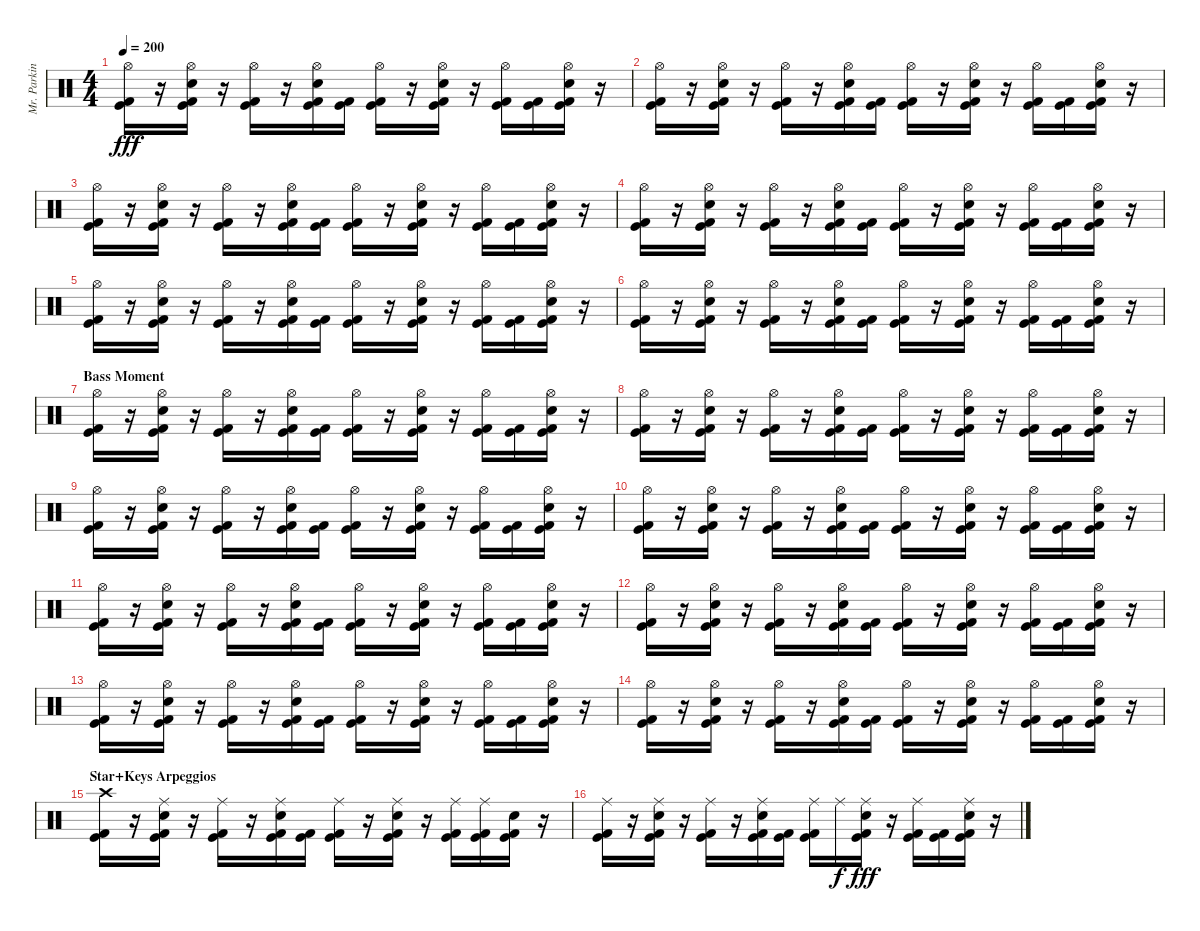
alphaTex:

\track ("Mr. Parkinson" "Mr. Parkin") {instrument percussion}
\staff {score}
\articulation defaults
\ts (4 4)
\tempo 200
\clef neutral
\ks c
("Hi-Hat (open)" "Kick (hit)" "Kick (hit) 2").16{dy fff} r.16 ("Hi-Hat (open)" "Electric Snare (hit)" "Kick (hit)" "Kick (hit) 2").16 r.16 ("Hi-Hat (open)" "Kick (hit)" "Kick (hit) 2").16 r.16 ("Hi-Hat (open)" "Electric Snare (hit)" "Kick (hit)" "Kick (hit) 2").16 ("Kick (hit)" "Kick (hit) 2").16 ("Hi-Hat (open)" "Kick (hit)" "Kick (hit) 2").16 r.16 ("Hi-Hat (open)" "Electric Snare (hit)" "Kick (hit)" "Kick (hit) 2").16 r.16 ("Hi-Hat (open)" "Kick (hit)" "Kick (hit) 2").16 ("Kick (hit)" "Kick (hit) 2").16 ("Hi-Hat (open)" "Electric Snare (hit)" "Kick (hit)" "Kick (hit) 2").16 r.16 |
("Hi-Hat (open)" "Kick (hit)" "Kick (hit) 2").16 r.16 ("Hi-Hat (open)" "Electric Snare (hit)" "Kick (hit)" "Kick (hit) 2").16 r.16 ("Hi-Hat (open)" "Kick (hit)" "Kick (hit) 2").16 r.16 ("Hi-Hat (open)" "Electric Snare (hit)" "Kick (hit)" "Kick (hit) 2").16 ("Kick (hit)" "Kick (hit) 2").16 ("Hi-Hat (open)" "Kick (hit)" "Kick (hit) 2").16 r.16 ("Hi-Hat (open)" "Electric Snare (hit)" "Kick (hit)" "Kick (hit) 2").16 r.16 ("Hi-Hat (open)" "Kick (hit)" "Kick (hit) 2").16 ("Kick (hit)" "Kick (hit) 2").16 ("Hi-Hat (open)" "Electric Snare (hit)" "Kick (hit)" "Kick (hit) 2").16 r.16 |
("Hi-Hat (open)" "Kick (hit)" "Kick (hit) 2").16 r.16 ("Hi-Hat (open)" "Electric Snare (hit)" "Kick (hit)" "Kick (hit) 2").16 r.16 ("Hi-Hat (open)" "Kick (hit)" "Kick (hit) 2").16 r.16 ("Hi-Hat (open)" "Electric Snare (hit)" "Kick (hit)" "Kick (hit) 2").16 ("Kick (hit)" "Kick (hit) 2").16 ("Hi-Hat (open)" "Kick (hit)" "Kick (hit) 2").16 r.16 ("Hi-Hat (open)" "Electric Snare (hit)" "Kick (hit)" "Kick (hit) 2").16 r.16 ("Hi-Hat (open)" "Kick (hit)" "Kick (hit) 2").16 ("Kick (hit)" "Kick (hit) 2").16 ("Hi-Hat (open)" "Electric Snare (hit)" "Kick (hit)" "Kick (hit) 2").16 r.16 |
("Hi-Hat (open)" "Kick (hit)" "Kick (hit) 2").16 r.16 ("Hi-Hat (open)" "Electric Snare (hit)" "Kick (hit)" "Kick (hit) 2").16 r.16 ("Hi-Hat (open)" "Kick (hit)" "Kick (hit) 2").16 r.16 ("Hi-Hat (open)" "Electric Snare (hit)" "Kick (hit)" "Kick (hit) 2").16 ("Kick (hit)" "Kick (hit) 2").16 ("Hi-Hat (open)" "Kick (hit)" "Kick (hit) 2").16 r.16 ("Hi-Hat (open)" "Electric Snare (hit)" "Kick (hit)" "Kick (hit) 2").16 r.16 ("Hi-Hat (open)" "Kick (hit)" "Kick (hit) 2").16 ("Kick (hit)" "Kick (hit) 2").16 ("Hi-Hat (open)" "Electric Snare (hit)" "Kick (hit)" "Kick (hit) 2").16 r.16 |
("Hi-Hat (open)" "Kick (hit)" "Kick (hit) 2").16 r.16 ("Hi-Hat (open)" "Electric Snare (hit)" "Kick (hit)" "Kick (hit) 2").16 r.16 ("Hi-Hat (open)" "Kick (hit)" "Kick (hit) 2").16 r.16 ("Hi-Hat (open)" "Electric Snare (hit)" "Kick (hit)" "Kick (hit) 2").16 ("Kick (hit)" "Kick (hit) 2").16 ("Hi-Hat (open)" "Kick (hit)" "Kick (hit) 2").16 r.16 ("Hi-Hat (open)" "Electric Snare (hit)" "Kick (hit)" "Kick (hit) 2").16 r.16 ("Hi-Hat (open)" "Kick (hit)" "Kick (hit) 2").16 ("Kick (hit)" "Kick (hit) 2").16 ("Hi-Hat (open)" "Electric Snare (hit)" "Kick (hit)" "Kick (hit) 2").16 r.16 |
("Hi-Hat (open)" "Kick (hit)" "Kick (hit) 2").16 r.16 ("Hi-Hat (open)" "Electric Snare (hit)" "Kick (hit)" "Kick (hit) 2").16 r.16 ("Hi-Hat (open)" "Kick (hit)" "Kick (hit) 2").16 r.16 ("Hi-Hat (open)" "Electric Snare (hit)" "Kick (hit)" "Kick (hit) 2").16 ("Kick (hit)" "Kick (hit) 2").16 ("Hi-Hat (open)" "Kick (hit)" "Kick (hit) 2").16 r.16 ("Hi-Hat (open)" "Electric Snare (hit)" "Kick (hit)" "Kick (hit) 2").16 r.16 ("Hi-Hat (open)" "Kick (hit)" "Kick (hit) 2").16 ("Kick (hit)" "Kick (hit) 2").16 ("Hi-Hat (open)" "Electric Snare (hit)" "Kick (hit)" "Kick (hit) 2").16 r.16 |
\section ("" "Bass Moment")
("Hi-Hat (open)" "Kick (hit)" "Kick (hit) 2").16 r.16 ("Hi-Hat (open)" "Electric Snare (hit)" "Kick (hit)" "Kick (hit) 2").16 r.16 ("Hi-Hat (open)" "Kick (hit)" "Kick (hit) 2").16 r.16 ("Hi-Hat (open)" "Electric Snare (hit)" "Kick (hit)" "Kick (hit) 2").16 ("Kick (hit)" "Kick (hit) 2").16 ("Hi-Hat (open)" "Kick (hit)" "Kick (hit) 2").16 r.16 ("Hi-Hat (open)" "Electric Snare (hit)" "Kick (hit)" "Kick (hit) 2").16 r.16 ("Hi-Hat (open)" "Kick (hit)" "Kick (hit) 2").16 ("Kick (hit)" "Kick (hit) 2").16 ("Hi-Hat (open)" "Electric Snare (hit)" "Kick (hit)" "Kick (hit) 2").16 r.16 |
("Hi-Hat (open)" "Kick (hit)" "Kick (hit) 2").16 r.16 ("Hi-Hat (open)" "Electric Snare (hit)" "Kick (hit)" "Kick (hit) 2").16 r.16 ("Hi-Hat (open)" "Kick (hit)" "Kick (hit) 2").16 r.16 ("Hi-Hat (open)" "Electric Snare (hit)" "Kick (hit)" "Kick (hit) 2").16 ("Kick (hit)" "Kick (hit) 2").16 ("Hi-Hat (open)" "Kick (hit)" "Kick (hit) 2").16 r.16 ("Hi-Hat (open)" "Electric Snare (hit)" "Kick (hit)" "Kick (hit) 2").16 r.16 ("Hi-Hat (open)" "Kick (hit)" "Kick (hit) 2").16 ("Kick (hit)" "Kick (hit) 2").16 ("Hi-Hat (open)" "Electric Snare (hit)" "Kick (hit)" "Kick (hit) 2").16 r.16 |
("Hi-Hat (open)" "Kick (hit)" "Kick (hit) 2").16 r.16 ("Hi-Hat (open)" "Electric Snare (hit)" "Kick (hit)" "Kick (hit) 2").16 r.16 ("Hi-Hat (open)" "Kick (hit)" "Kick (hit) 2").16 r.16 ("Hi-Hat (open)" "Electric Snare (hit)" "Kick (hit)" "Kick (hit) 2").16 ("Kick (hit)" "Kick (hit) 2").16 ("Hi-Hat (open)" "Kick (hit)" "Kick (hit) 2").16 r.16 ("Hi-Hat (open)" "Electric Snare (hit)" "Kick (hit)" "Kick (hit) 2").16 r.16 ("Hi-Hat (open)" "Kick (hit)" "Kick (hit) 2").16 ("Kick (hit)" "Kick (hit) 2").16 ("Hi-Hat (open)" "Electric Snare (hit)" "Kick (hit)" "Kick (hit) 2").16 r.16 |
("Hi-Hat (open)" "Kick (hit)" "Kick (hit) 2").16 r.16 ("Hi-Hat (open)" "Electric Snare (hit)" "Kick (hit)" "Kick (hit) 2").16 r.16 ("Hi-Hat (open)" "Kick (hit)" "Kick (hit) 2").16 r.16 ("Hi-Hat (open)" "Electric Snare (hit)" "Kick (hit)" "Kick (hit) 2").16 ("Kick (hit)" "Kick (hit) 2").16 ("Hi-Hat (open)" "Kick (hit)" "Kick (hit) 2").16 r.16 ("Hi-Hat (open)" "Electric Snare (hit)" "Kick (hit)" "Kick (hit) 2").16 r.16 ("Hi-Hat (open)" "Kick (hit)" "Kick (hit) 2").16 ("Kick (hit)" "Kick (hit) 2").16 ("Hi-Hat (open)" "Electric Snare (hit)" "Kick (hit)" "Kick (hit) 2").16 r.16 |
("Hi-Hat (open)" "Kick (hit)" "Kick (hit) 2").16 r.16 ("Hi-Hat (open)" "Electric Snare (hit)" "Kick (hit)" "Kick (hit) 2").16 r.16 ("Hi-Hat (open)" "Kick (hit)" "Kick (hit) 2").16 r.16 ("Hi-Hat (open)" "Electric Snare (hit)" "Kick (hit)" "Kick (hit) 2").16 ("Kick (hit)" "Kick (hit) 2").16 ("Hi-Hat (open)" "Kick (hit)" "Kick (hit) 2").16 r.16 ("Hi-Hat (open)" "Electric Snare (hit)" "Kick (hit)" "Kick (hit) 2").16 r.16 ("Hi-Hat (open)" "Kick (hit)" "Kick (hit) 2").16 ("Kick (hit)" "Kick (hit) 2").16 ("Hi-Hat (open)" "Electric Snare (hit)" "Kick (hit)" "Kick (hit) 2").16 r.16 |
("Hi-Hat (open)" "Kick (hit)" "Kick (hit) 2").16 r.16 ("Hi-Hat (open)" "Electric Snare (hit)" "Kick (hit)" "Kick (hit) 2").16 r.16 ("Hi-Hat (open)" "Kick (hit)" "Kick (hit) 2").16 r.16 ("Hi-Hat (open)" "Electric Snare (hit)" "Kick (hit)" "Kick (hit) 2").16 ("Kick (hit)" "Kick (hit) 2").16 ("Hi-Hat (open)" "Kick (hit)" "Kick (hit) 2").16 r.16 ("Hi-Hat (open)" "Electric Snare (hit)" "Kick (hit)" "Kick (hit) 2").16 r.16 ("Hi-Hat (open)" "Kick (hit)" "Kick (hit) 2").16 ("Kick (hit)" "Kick (hit) 2").16 ("Hi-Hat (open)" "Electric Snare (hit)" "Kick (hit)" "Kick (hit) 2").16 r.16 |
("Hi-Hat (open)" "Kick (hit)" "Kick (hit) 2").16 r.16 ("Hi-Hat (open)" "Electric Snare (hit)" "Kick (hit)" "Kick (hit) 2").16 r.16 ("Hi-Hat (open)" "Kick (hit)" "Kick (hit) 2").16 r.16 ("Hi-Hat (open)" "Electric Snare (hit)" "Kick (hit)" "Kick (hit) 2").16 ("Kick (hit)" "Kick (hit) 2").16 ("Hi-Hat (open)" "Kick (hit)" "Kick (hit) 2").16 r.16 ("Hi-Hat (open)" "Electric Snare (hit)" "Kick (hit)" "Kick (hit) 2").16 r.16 ("Hi-Hat (open)" "Kick (hit)" "Kick (hit) 2").16 ("Kick (hit)" "Kick (hit) 2").16 ("Hi-Hat (open)" "Electric Snare (hit)" "Kick (hit)" "Kick (hit) 2").16 r.16 |
("Hi-Hat (open)" "Kick (hit)" "Kick (hit) 2").16 r.16 ("Hi-Hat (open)" "Electric Snare (hit)" "Kick (hit)" "Kick (hit) 2").16 r.16 ("Hi-Hat (open)" "Kick (hit)" "Kick (hit) 2").16 r.16 ("Hi-Hat (open)" "Electric Snare (hit)" "Kick (hit)" "Kick (hit) 2").16 ("Kick (hit)" "Kick (hit) 2").16 ("Hi-Hat (open)" "Kick (hit)" "Kick (hit) 2").16 r.16 ("Hi-Hat (open)" "Electric Snare (hit)" "Kick (hit)" "Kick (hit) 2").16 r.16 ("Hi-Hat (open)" "Kick (hit)" "Kick (hit) 2").16 ("Kick (hit)" "Kick (hit) 2").16 ("Hi-Hat (open)" "Electric Snare (hit)" "Kick (hit)" "Kick (hit) 2").16 r.16 |
\section ("" "Star+Keys Arpeggios")
("Crash high (hit)" "Kick (hit)" "Kick (hit) 2").16 r.16 ("Ride (middle)" "Electric Snare (hit)" "Kick (hit)" "Kick (hit) 2").16 r.16 ("Ride (middle)" "Kick (hit)" "Kick (hit) 2").16 r.16 ("Ride (middle)" "Electric Snare (hit)" "Kick (hit)" "Kick (hit) 2").16 ("Kick (hit)" "Kick (hit) 2").16 ("Ride (middle)" "Kick (hit)" "Kick (hit) 2").16 r.16 ("Ride (middle)" "Electric Snare (hit)" "Kick (hit)" "Kick (hit) 2").16 r.16 ("Ride (middle)" "Kick (hit)" "Kick (hit) 2").16 ("Ride (middle)" "Kick (hit)" "Kick (hit) 2").16 ("Electric Snare (hit)" "Kick (hit)" "Kick (hit) 2").16 r.16 |
("Ride (middle)" "Kick (hit)" "Kick (hit) 2").16 r.16 ("Ride (middle)" "Electric Snare (hit)" "Kick (hit)" "Kick (hit) 2").16 r.16 ("Ride (middle)" "Kick (hit)" "Kick (hit) 2").16 r.16 ("Ride (middle)" "Electric Snare (hit)" "Kick (hit)" "Kick (hit) 2").16 ("Kick (hit)" "Kick (hit) 2").16 ("Ride (middle)" "Kick (hit)" "Kick (hit) 2").16 "Ride (middle)".16{dy f} ("Ride (middle)" "Electric Snare (hit)" "Kick (hit)" "Kick (hit) 2").16{dy fff} r.16 ("Ride (middle)" "Kick (hit)" "Kick (hit) 2").16 ("Kick (hit)" "Kick (hit) 2").16 ("Ride (middle)" "Electric Snare (hit)" "Kick (hit)" "Kick (hit) 2").16 r.16
